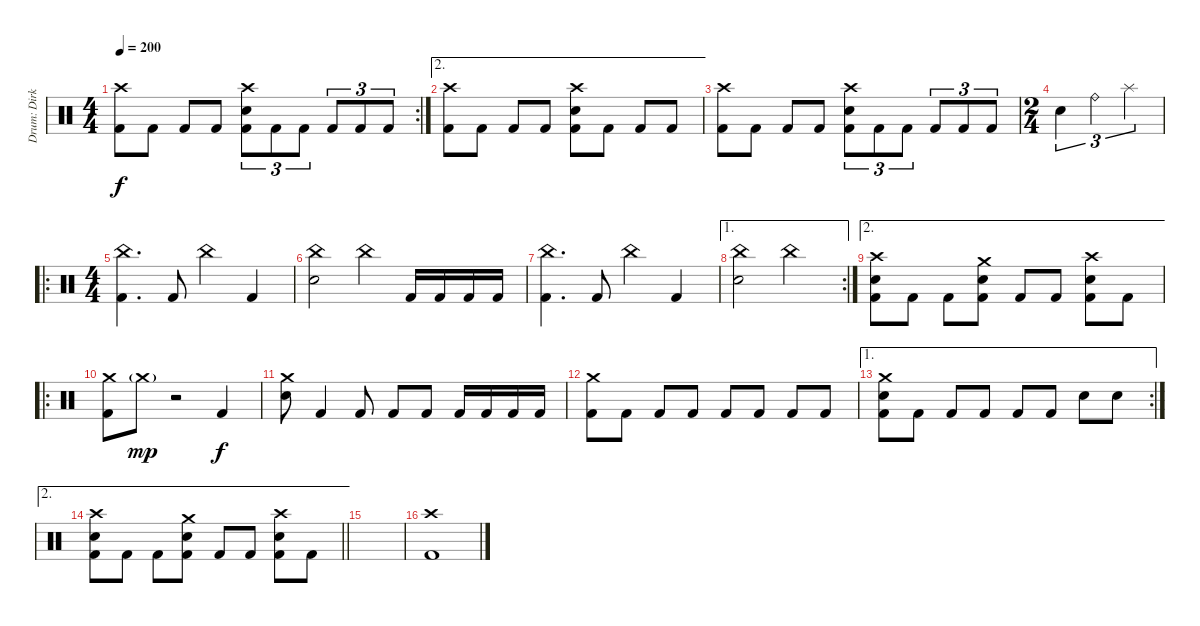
\track ("Drum: Dirk" "Drum: Dirk") {instrument percussion}
\staff {score}
\articulation defaults
\rc 2
\ts (4 4)
\tempo 200
\clef neutral
\ks c
("Crash high (hit)" "Kick (hit) 2").8{dy f} "Kick (hit) 2".8 "Kick (hit) 2".8 "Kick (hit) 2".8 ("Crash high (hit)" "Electric Snare (hit)" "Kick (hit) 2").8{tu (3 2)} "Kick (hit) 2".8{tu (3 2)} "Kick (hit) 2".8{tu (3 2)} "Kick (hit) 2".8{tu (3 2)} "Kick (hit) 2".8{tu (3 2)} "Kick (hit) 2".8{tu (3 2)} |
\ae 2
("Crash high (hit)" "Kick (hit) 2").8 "Kick (hit) 2".8 "Kick (hit) 2".8 "Kick (hit) 2".8 ("Crash high (hit)" "Electric Snare (hit)" "Kick (hit) 2").8 "Kick (hit) 2".8 "Kick (hit) 2".8 "Kick (hit) 2".8 |
("Crash high (hit)" "Kick (hit) 2").8 "Kick (hit) 2".8 "Kick (hit) 2".8 "Kick (hit) 2".8 ("Crash high (hit)" "Electric Snare (hit)" "Kick (hit) 2").8{tu (3 2)} "Kick (hit) 2".8{tu (3 2)} "Kick (hit) 2".8{tu (3 2)} "Kick (hit) 2".8{tu (3 2)} "Kick (hit) 2".8{tu (3 2)} "Kick (hit) 2".8{tu (3 2)} |
\ts (2 4)
"Electric Snare (hit)".4{tu (3 2)} "Ride (bell)".4{tu (3 2)} "Splash (hit)".4{tu (3 2)} |
\ro
\ts (4 4)
("China (hit)" "Kick (hit) 2").4{d} "Kick (hit) 2".8 "China (hit)".4 "Kick (hit) 2".4 |
("China (hit)" "Electric Snare (hit)").2 "China (hit)".4 "Kick (hit) 2".16 "Kick (hit) 2".16 "Kick (hit) 2".16 "Kick (hit) 2".16 |
("China (hit)" "Kick (hit) 2").4{d} "Kick (hit) 2".8 "China (hit)".4 "Kick (hit) 2".4 |
\ae 1
\rc 2
("China (hit)" "Electric Snare (hit)").2 "China (hit)".2 |
\ae 2
("Crash high (hit)" "Electric Snare (hit)" "Kick (hit) 2").8 "Kick (hit) 2".8 "Kick (hit) 2".8 ("Crash medium (hit)" "Electric Snare (hit)" "Kick (hit) 2").8 "Kick (hit) 2".8 "Kick (hit) 2".8 ("Crash high (hit)" "Electric Snare (hit)" "Kick (hit) 2").8 "Kick (hit) 2".8 |
\ro
("Crash medium (hit)" "Kick (hit) 2").8 "Crash medium (hit)"{g}.8{dy mp} r.2 "Kick (hit) 2".4{dy f} |
("Crash medium (hit)" "Electric Snare (hit)").8 "Kick (hit) 2".4 "Kick (hit) 2".8 "Kick (hit) 2".8 "Kick (hit) 2".8 "Kick (hit) 2".16 "Kick (hit) 2".16 "Kick (hit) 2".16 "Kick (hit) 2".16 |
("Crash medium (hit)" "Kick (hit) 2").8 "Kick (hit) 2".8 "Kick (hit) 2".8 "Kick (hit) 2".8 "Kick (hit) 2".8 "Kick (hit) 2".8 "Kick (hit) 2".8 "Kick (hit) 2".8 |
\ae 1
\rc 2
("Crash medium (hit)" "Electric Snare (hit)" "Kick (hit) 2").8 "Kick (hit) 2".8 "Kick (hit) 2".8 "Kick (hit) 2".8 "Kick (hit) 2".8 "Kick (hit) 2".8 "Electric Snare (hit)".8 "Electric Snare (hit)".8 |
\ae 2
\barLineRight lightlight
("Crash high (hit)" "Electric Snare (hit)" "Kick (hit) 2").8 "Kick (hit) 2".8 "Kick (hit) 2".8 ("Crash medium (hit)" "Electric Snare (hit)" "Kick (hit) 2").8 "Kick (hit) 2".8 "Kick (hit) 2".8 ("Crash high (hit)" "Electric Snare (hit)" "Kick (hit) 2").8 "Kick (hit) 2".8 |
|
("Crash high (hit)" "Kick (hit) 2").1
